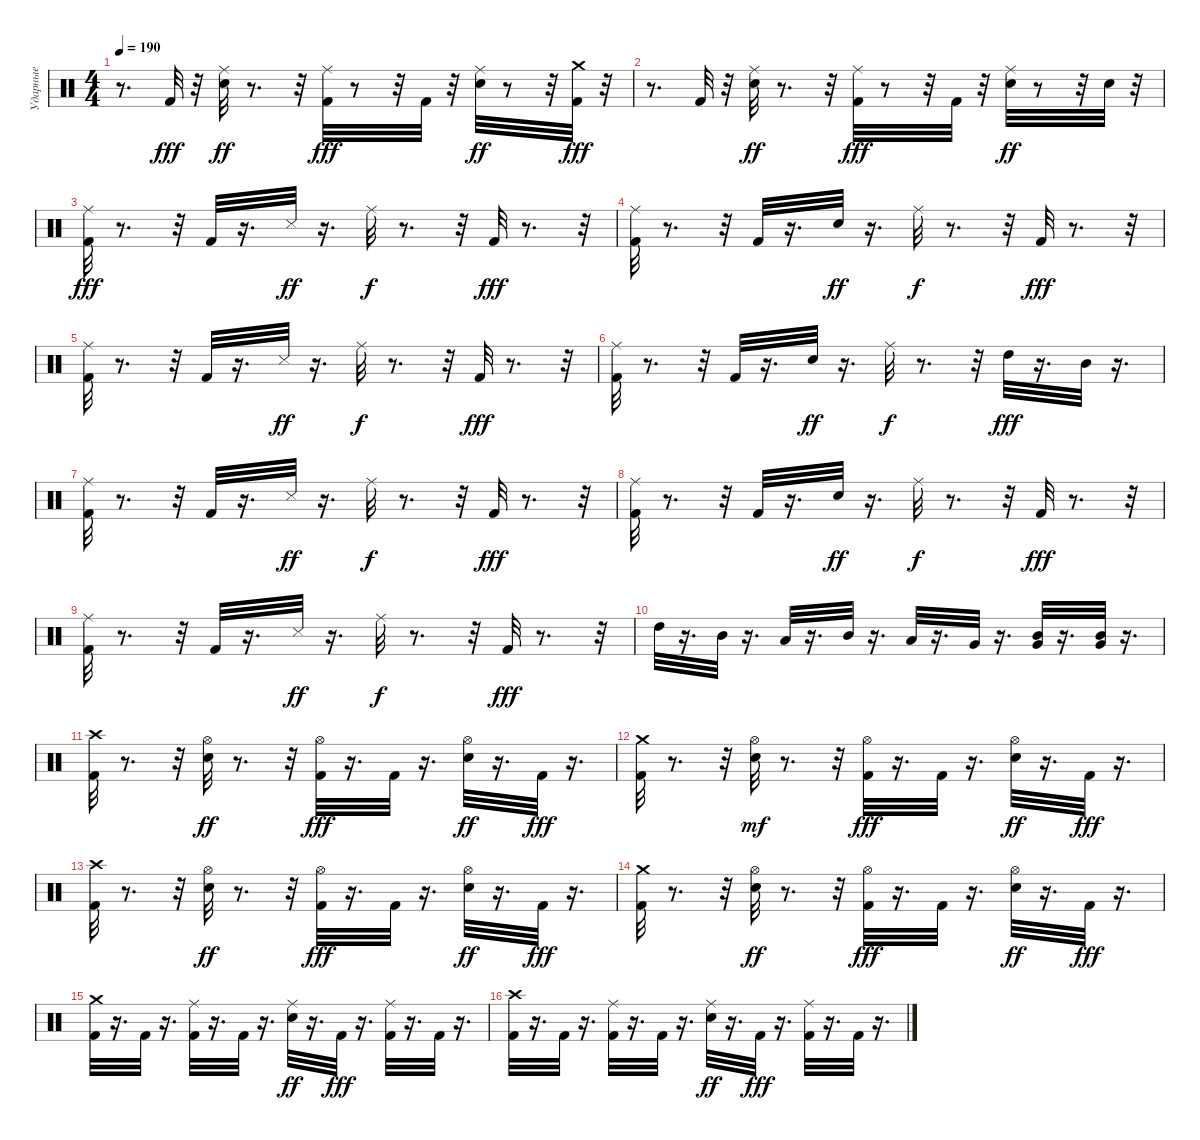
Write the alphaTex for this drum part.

\track ("Ударные" "Ударные") {instrument percussion}
\staff {score}
\articulation defaults
\ts (4 4)
\tempo 190
\clef neutral
\ks c
r.8{d dy fff} "Kick (hit) 2".32 r.32 ("Ride (middle)" "Snare (hit) 2").32{dy ff} r.8{d} r.32 ("Kick (hit) 2" "Ride (middle)").32{dy fff} r.8 r.32 "Kick (hit) 2".32 r.32 ("Snare (hit) 2" "Ride (middle)").32{dy ff} r.8 r.32 ("Crash medium (hit)" "Kick (hit) 2").32{dy fff} r.32 |
r.8{d} "Kick (hit) 2".32 r.32 ("Ride (middle)" "Snare (hit) 2").32{dy ff} r.8{d} r.32 ("Ride (middle)" "Kick (hit) 2").32{dy fff} r.8 r.32 "Kick (hit) 2".32 r.32 ("Ride (middle)" "Snare (hit) 2").32{dy ff} r.8 r.32 "Snare (hit) 2".32 r.32 |
("Ride (middle)" "Kick (hit) 2").32{dy fff} r.8{d} r.32 "Kick (hit) 2".32 r.16{d} "Snare (side stick) 3".32{dy ff} r.16{d} "Ride (middle)".32{dy f} r.8{d} r.32 "Kick (hit) 2".32{dy fff} r.8{d} r.32 |
("Ride (middle)" "Kick (hit) 2").32 r.8{d} r.32 "Kick (hit) 2".32 r.16{d} "Snare (hit) 2".32{dy ff} r.16{d} "Ride (middle)".32{dy f} r.8{d} r.32 "Kick (hit) 2".32{dy fff} r.8{d} r.32 |
("Kick (hit) 2" "Ride (middle)").32 r.8{d} r.32 "Kick (hit) 2".32 r.16{d} "Snare (side stick) 3".32{dy ff} r.16{d} "Ride (middle)".32{dy f} r.8{d} r.32 "Kick (hit) 2".32{dy fff} r.8{d} r.32 |
("Ride (middle)" "Kick (hit) 2").32 r.8{d} r.32 "Kick (hit) 2".32 r.16{d} "Snare (hit) 2".32{dy ff} r.16{d} "Ride (middle)".32{dy f} r.8{d} r.32 "High Tom (hit)".32{dy fff} r.16{d} "Mid Tom (hit)".32 r.16{d} |
("Ride (middle)" "Kick (hit) 2").32 r.8{d} r.32 "Kick (hit) 2".32 r.16{d} "Snare (side stick) 3".32{dy ff} r.16{d} "Ride (middle)".32{dy f} r.8{d} r.32 "Kick (hit) 2".32{dy fff} r.8{d} r.32 |
("Ride (middle)" "Kick (hit) 2").32 r.8{d} r.32 "Kick (hit) 2".32 r.16{d} "Snare (hit) 2".32{dy ff} r.16{d} "Ride (middle)".32{dy f} r.8{d} r.32 "Kick (hit) 2".32{dy fff} r.8{d} r.32 |
("Kick (hit) 2" "Ride (middle)").32 r.8{d} r.32 "Kick (hit) 2".32 r.16{d} "Snare (side stick) 3".32{dy ff} r.16{d} "Ride (middle)".32{dy f} r.8{d} r.32 "Kick (hit) 2".32{dy fff} r.8{d} r.32 |
"High Tom (hit)".32 r.16{d} "Mid Tom (hit)".32 r.16{d} "Low Tom (hit)".32 r.16{d} "Mid Tom (hit)".32 r.16{d} "Low Tom (hit)".32 r.16{d} "Very Low Tom (hit)".32 r.16{d} ("Mid Tom (hit)" "Very Low Tom (hit)").32 r.16{d} ("Mid Tom (hit)" "Very Low Tom (hit)").32 r.16{d} |
("Kick (hit) 2" "Crash high (hit)").32 r.8{d} r.32 ("Hi-Hat (open)" "Snare (hit) 2").32{dy ff} r.8{d} r.32 ("Hi-Hat (open)" "Kick (hit) 2").32{dy fff} r.16{d} "Kick (hit) 2".32 r.16{d} ("Hi-Hat (open)" "Snare (hit) 2").32{dy ff} r.16{d} "Kick (hit) 2".32{dy fff} r.16{d} |
("Crash medium (hit)" "Kick (hit) 2").32 r.8{d} r.32 ("Snare (hit) 2" "Hi-Hat (open)").32{dy mf} r.8{d} r.32 ("Hi-Hat (open)" "Kick (hit) 2").32{dy fff} r.16{d} "Kick (hit) 2".32 r.16{d} ("Hi-Hat (open)" "Snare (hit) 2").32{dy ff} r.16{d} "Kick (hit) 2".32{dy fff} r.16{d} |
("Crash high (hit)" "Kick (hit) 2").32 r.8{d} r.32 ("Hi-Hat (open)" "Snare (hit) 2").32{dy ff} r.8{d} r.32 ("Hi-Hat (open)" "Kick (hit) 2").32{dy fff} r.16{d} "Kick (hit) 2".32 r.16{d} ("Hi-Hat (open)" "Snare (hit) 2").32{dy ff} r.16{d} "Kick (hit) 2".32{dy fff} r.16{d} |
("Crash medium (hit)" "Kick (hit) 2").32 r.8{d} r.32 ("Hi-Hat (open)" "Snare (hit) 2").32{dy ff} r.8{d} r.32 ("Hi-Hat (open)" "Kick (hit) 2").32{dy fff} r.16{d} "Kick (hit) 2".32 r.16{d} ("Hi-Hat (open)" "Snare (hit) 2").32{dy ff} r.16{d} "Kick (hit) 2".32{dy fff} r.16{d} |
("Crash medium (hit)" "Kick (hit) 2").32 r.16{d} "Kick (hit) 2".32 r.16{d} ("Kick (hit) 2" "Ride (middle)").32 r.16{d} "Kick (hit) 2".32 r.16{d} ("Snare (hit) 2" "Ride (middle)").32{dy ff} r.16{d} "Kick (hit) 2".32{dy fff} r.16{d} ("Kick (hit) 2" "Ride (middle)").32 r.16{d} "Kick (hit) 2".32 r.16{d} |
("Kick (hit) 2" "Crash high (hit)").32 r.16{d} "Kick (hit) 2".32 r.16{d} ("Ride (middle)" "Kick (hit) 2").32 r.16{d} "Kick (hit) 2".32 r.16{d} ("Ride (middle)" "Snare (hit) 2").32{dy ff} r.16{d} "Kick (hit) 2".32{dy fff} r.16{d} ("Kick (hit) 2" "Ride (middle)").32 r.16{d} "Kick (hit) 2".32 r.16{d}
